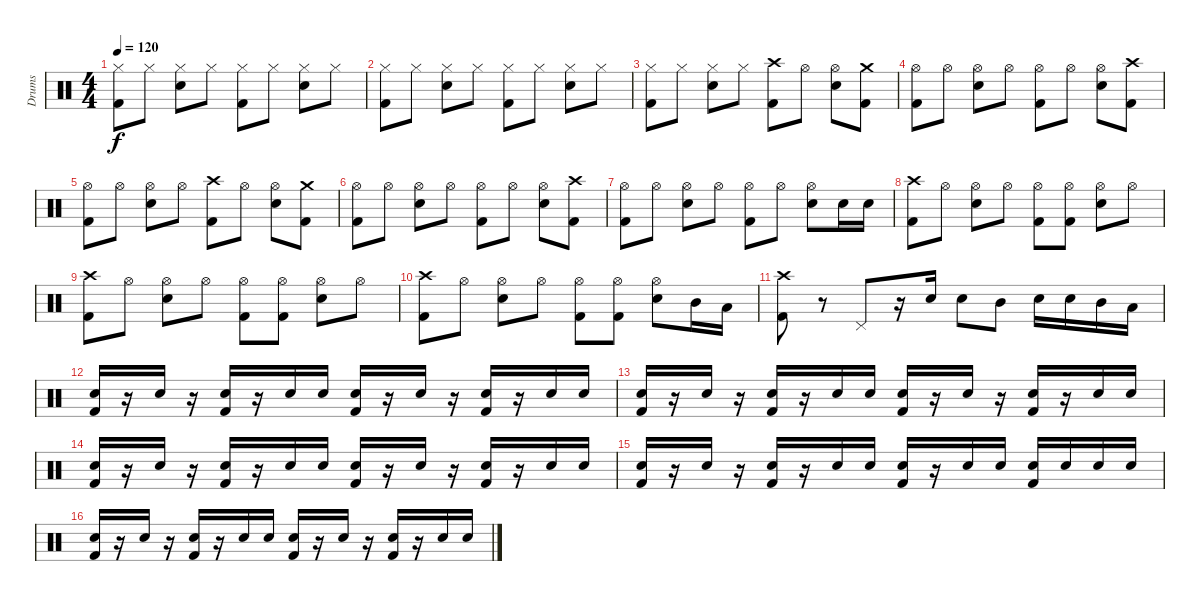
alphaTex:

\track ("Drums" "Drums") {instrument percussion}
\staff {score}
\articulation defaults
\ts (4 4)
\tempo 120
\clef neutral
\ks c
("Hi-Hat (closed)" "Kick (hit) 2").8{dy f} "Hi-Hat (closed)".8 ("Hi-Hat (closed)" "Snare (hit) 2").8 "Hi-Hat (closed)".8 ("Hi-Hat (closed)" "Kick (hit) 2").8 "Hi-Hat (closed)".8 ("Hi-Hat (closed)" "Snare (hit) 2").8 "Hi-Hat (closed)".8 |
("Hi-Hat (closed)" "Kick (hit) 2").8 "Hi-Hat (closed)".8 ("Hi-Hat (closed)" "Snare (hit) 2").8 "Hi-Hat (closed)".8 ("Hi-Hat (closed)" "Kick (hit) 2").8 "Hi-Hat (closed)".8 ("Hi-Hat (closed)" "Snare (hit) 2").8 "Hi-Hat (closed)".8 |
("Hi-Hat (closed)" "Kick (hit) 2").8 "Hi-Hat (closed)".8 ("Hi-Hat (closed)" "Snare (hit) 2").8 "Hi-Hat (closed)".8 ("Crash high (hit)" "Kick (hit) 2").8 "Hi-Hat (open)".8 ("Hi-Hat (open)" "Snare (hit) 2").8 ("Crash medium (hit)" "Kick (hit) 2").8 |
("Hi-Hat (open)" "Kick (hit) 2").8 "Hi-Hat (open)".8 ("Hi-Hat (open)" "Snare (hit) 2").8 "Hi-Hat (open)".8 ("Hi-Hat (open)" "Kick (hit) 2").8 "Hi-Hat (open)".8 ("Hi-Hat (open)" "Snare (hit) 2").8 ("Crash high (hit)" "Kick (hit) 2").8 |
("Hi-Hat (open)" "Kick (hit) 2").8 "Hi-Hat (open)".8 ("Hi-Hat (open)" "Snare (hit) 2").8 "Hi-Hat (open)".8 ("Crash high (hit)" "Kick (hit) 2").8 "Hi-Hat (open)".8 ("Hi-Hat (open)" "Snare (hit) 2").8 ("Crash medium (hit)" "Kick (hit) 2").8 |
("Hi-Hat (open)" "Kick (hit) 2").8 "Hi-Hat (open)".8 ("Hi-Hat (open)" "Snare (hit) 2").8 "Hi-Hat (open)".8 ("Hi-Hat (open)" "Kick (hit) 2").8 "Hi-Hat (open)".8 ("Hi-Hat (open)" "Snare (hit) 2").8 ("Crash high (hit)" "Kick (hit) 2").8 |
("Hi-Hat (open)" "Kick (hit) 2").8 "Hi-Hat (open)".8 ("Hi-Hat (open)" "Snare (hit) 2").8 "Hi-Hat (open)".8 ("Hi-Hat (open)" "Kick (hit) 2").8 "Hi-Hat (open)".8 ("Hi-Hat (open)" "Snare (hit) 2").8 "Snare (hit) 2".16 "Snare (hit) 2".16 |
("Crash high (hit)" "Kick (hit) 2").8 "Hi-Hat (open)".8 ("Hi-Hat (open)" "Snare (hit) 2").8 "Hi-Hat (open)".8 ("Hi-Hat (open)" "Kick (hit) 2").8 ("Hi-Hat (open)" "Kick (hit) 2").8 ("Hi-Hat (open)" "Snare (hit) 2").8 "Hi-Hat (open)".8 |
("Crash high (hit)" "Kick (hit) 2").8 "Hi-Hat (open)".8 ("Hi-Hat (open)" "Snare (hit) 2").8 "Hi-Hat (open)".8 ("Hi-Hat (open)" "Kick (hit) 2").8 ("Hi-Hat (open)" "Kick (hit) 2").8 ("Hi-Hat (open)" "Snare (hit) 2").8 "Hi-Hat (open)".8 |
("Crash high (hit)" "Kick (hit) 2").8 "Hi-Hat (open)".8 ("Hi-Hat (open)" "Snare (hit) 2").8 "Hi-Hat (open)".8 ("Hi-Hat (open)" "Kick (hit) 2").8 ("Hi-Hat (open)" "Kick (hit) 2").8 ("Hi-Hat (open)" "Snare (hit) 2").8 "Mid Tom (hit)".16 "Low Tom (hit)".16 |
("Crash high (hit)" "Kick (hit) 2").8 r.8 "Pedal Hi-Hat (hit)".8 r.16 "Snare (hit) 2".16 "Snare (hit) 2".8 "Mid Tom (hit)".8 "Snare (hit) 2".16 "Snare (hit) 2".16 "Mid Tom (hit)".16 "Low Tom (hit)".16 |
("Electric Snare (hit)" "Kick (hit) 2").16 r.16 "Electric Snare (hit)".16 r.16 ("Electric Snare (hit)" "Kick (hit) 2").16 r.16 "Electric Snare (hit)".16 "Electric Snare (hit)".16 ("Electric Snare (hit)" "Kick (hit) 2").16 r.16 "Electric Snare (hit)".16 r.16 ("Electric Snare (hit)" "Kick (hit) 2").16 r.16 "Electric Snare (hit)".16 "Electric Snare (hit)".16 |
("Electric Snare (hit)" "Kick (hit) 2").16 r.16 "Electric Snare (hit)".16 r.16 ("Electric Snare (hit)" "Kick (hit) 2").16 r.16 "Electric Snare (hit)".16 "Electric Snare (hit)".16 ("Electric Snare (hit)" "Kick (hit) 2").16 r.16 "Electric Snare (hit)".16 r.16 ("Electric Snare (hit)" "Kick (hit) 2").16 r.16 "Electric Snare (hit)".16 "Electric Snare (hit)".16 |
("Electric Snare (hit)" "Kick (hit) 2").16 r.16 "Electric Snare (hit)".16 r.16 ("Electric Snare (hit)" "Kick (hit) 2").16 r.16 "Electric Snare (hit)".16 "Electric Snare (hit)".16 ("Electric Snare (hit)" "Kick (hit) 2").16 r.16 "Electric Snare (hit)".16 r.16 ("Electric Snare (hit)" "Kick (hit) 2").16 r.16 "Electric Snare (hit)".16 "Electric Snare (hit)".16 |
("Electric Snare (hit)" "Kick (hit) 2").16 r.16 "Electric Snare (hit)".16 r.16 ("Electric Snare (hit)" "Kick (hit) 2").16 r.16 "Electric Snare (hit)".16 "Electric Snare (hit)".16 ("Electric Snare (hit)" "Kick (hit) 2").16 r.16 "Electric Snare (hit)".16 "Electric Snare (hit)".16 ("Electric Snare (hit)" "Kick (hit) 2").16 "Electric Snare (hit)".16 "Electric Snare (hit)".16 "Electric Snare (hit)".16 |
("Electric Snare (hit)" "Kick (hit) 2").16 r.16 "Electric Snare (hit)".16 r.16 ("Electric Snare (hit)" "Kick (hit) 2").16 r.16 "Electric Snare (hit)".16 "Electric Snare (hit)".16 ("Electric Snare (hit)" "Kick (hit) 2").16 r.16 "Electric Snare (hit)".16 r.16 ("Electric Snare (hit)" "Kick (hit) 2").16 r.16 "Electric Snare (hit)".16 "Electric Snare (hit)".16
